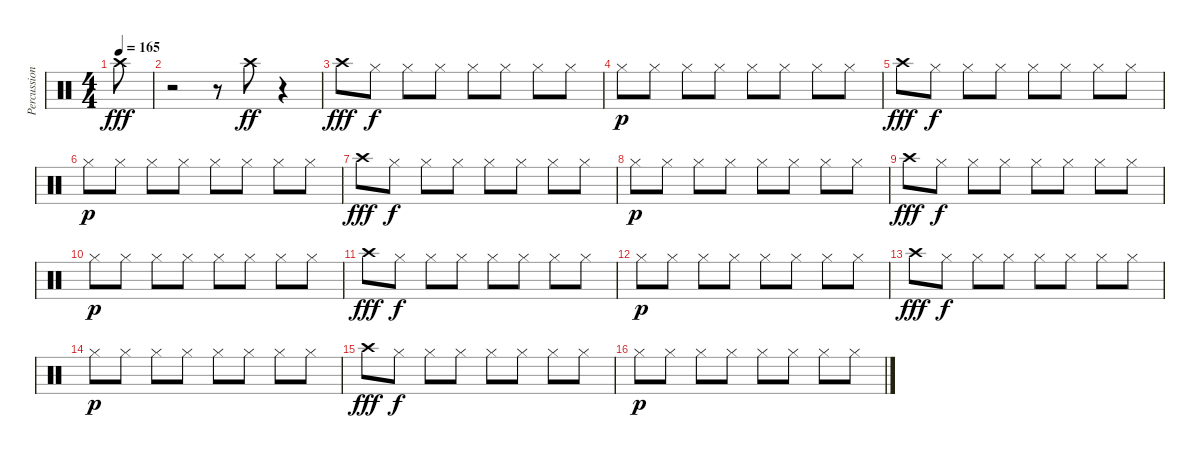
\track ("Percussion" "Percussion") {instrument percussion}
\staff {score}
\articulation defaults
\ts (4 4)
\tempo 165
\clef neutral
\ks c "Crash high (hit)".8{dy fff}
|
r.2 r.8 "Crash high (hit)".8{dy ff} r.4 |
"Crash high (hit)".8{dy fff} "Hi-Hat (closed)".8{dy f} "Hi-Hat (closed)".8 "Hi-Hat (closed)".8 "Hi-Hat (closed)".8 "Hi-Hat (closed)".8 "Hi-Hat (closed)".8 "Hi-Hat (closed)".8 |
"Hi-Hat (closed)".8{dy p} "Hi-Hat (closed)".8 "Hi-Hat (closed)".8 "Hi-Hat (closed)".8 "Hi-Hat (closed)".8 "Hi-Hat (closed)".8 "Hi-Hat (closed)".8 "Hi-Hat (closed)".8 |
"Crash high (hit)".8{dy fff} "Hi-Hat (closed)".8{dy f} "Hi-Hat (closed)".8 "Hi-Hat (closed)".8 "Hi-Hat (closed)".8 "Hi-Hat (closed)".8 "Hi-Hat (closed)".8 "Hi-Hat (closed)".8 |
"Hi-Hat (closed)".8{dy p} "Hi-Hat (closed)".8 "Hi-Hat (closed)".8 "Hi-Hat (closed)".8 "Hi-Hat (closed)".8 "Hi-Hat (closed)".8 "Hi-Hat (closed)".8 "Hi-Hat (closed)".8 |
"Crash high (hit)".8{dy fff} "Hi-Hat (closed)".8{dy f} "Hi-Hat (closed)".8 "Hi-Hat (closed)".8 "Hi-Hat (closed)".8 "Hi-Hat (closed)".8 "Hi-Hat (closed)".8 "Hi-Hat (closed)".8 |
"Hi-Hat (closed)".8{dy p} "Hi-Hat (closed)".8 "Hi-Hat (closed)".8 "Hi-Hat (closed)".8 "Hi-Hat (closed)".8 "Hi-Hat (closed)".8 "Hi-Hat (closed)".8 "Hi-Hat (closed)".8 |
"Crash high (hit)".8{dy fff} "Hi-Hat (closed)".8{dy f} "Hi-Hat (closed)".8 "Hi-Hat (closed)".8 "Hi-Hat (closed)".8 "Hi-Hat (closed)".8 "Hi-Hat (closed)".8 "Hi-Hat (closed)".8 |
"Hi-Hat (closed)".8{dy p} "Hi-Hat (closed)".8 "Hi-Hat (closed)".8 "Hi-Hat (closed)".8 "Hi-Hat (closed)".8 "Hi-Hat (closed)".8 "Hi-Hat (closed)".8 "Hi-Hat (closed)".8 |
"Crash high (hit)".8{dy fff} "Hi-Hat (closed)".8{dy f} "Hi-Hat (closed)".8 "Hi-Hat (closed)".8 "Hi-Hat (closed)".8 "Hi-Hat (closed)".8 "Hi-Hat (closed)".8 "Hi-Hat (closed)".8 |
"Hi-Hat (closed)".8{dy p} "Hi-Hat (closed)".8 "Hi-Hat (closed)".8 "Hi-Hat (closed)".8 "Hi-Hat (closed)".8 "Hi-Hat (closed)".8 "Hi-Hat (closed)".8 "Hi-Hat (closed)".8 |
"Crash high (hit)".8{dy fff} "Hi-Hat (closed)".8{dy f} "Hi-Hat (closed)".8 "Hi-Hat (closed)".8 "Hi-Hat (closed)".8 "Hi-Hat (closed)".8 "Hi-Hat (closed)".8 "Hi-Hat (closed)".8 |
"Hi-Hat (closed)".8{dy p} "Hi-Hat (closed)".8 "Hi-Hat (closed)".8 "Hi-Hat (closed)".8 "Hi-Hat (closed)".8 "Hi-Hat (closed)".8 "Hi-Hat (closed)".8 "Hi-Hat (closed)".8 |
"Crash high (hit)".8{dy fff} "Hi-Hat (closed)".8{dy f} "Hi-Hat (closed)".8 "Hi-Hat (closed)".8 "Hi-Hat (closed)".8 "Hi-Hat (closed)".8 "Hi-Hat (closed)".8 "Hi-Hat (closed)".8 |
"Hi-Hat (closed)".8{dy p} "Hi-Hat (closed)".8 "Hi-Hat (closed)".8 "Hi-Hat (closed)".8 "Hi-Hat (closed)".8 "Hi-Hat (closed)".8 "Hi-Hat (closed)".8 "Hi-Hat (closed)".8
